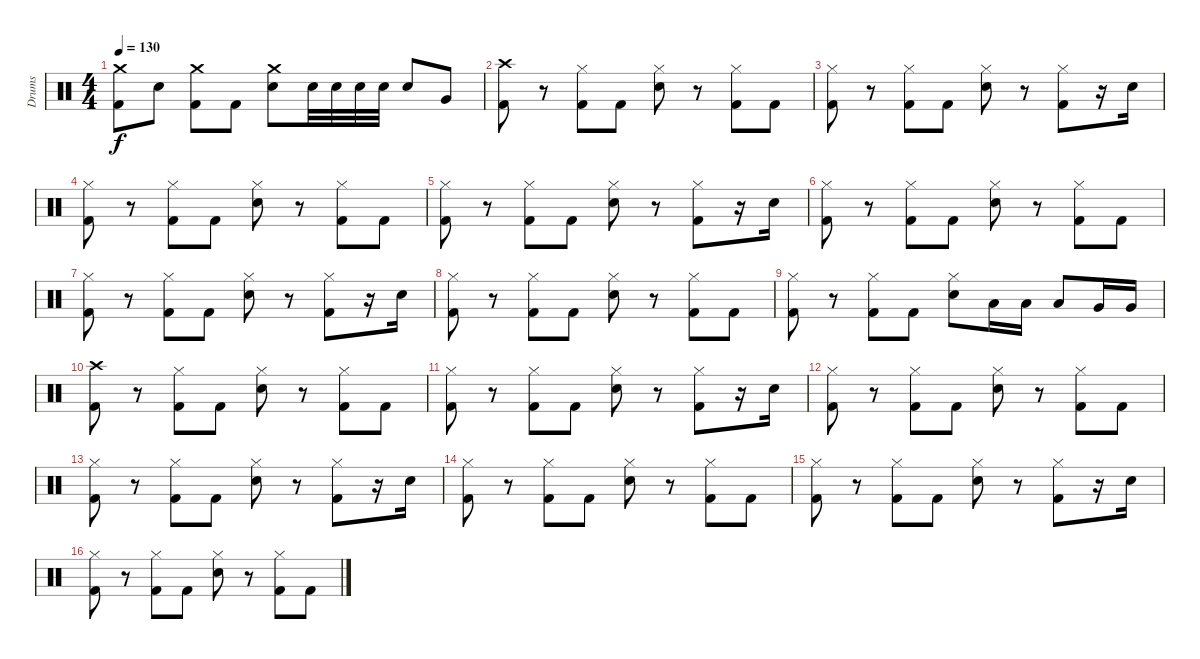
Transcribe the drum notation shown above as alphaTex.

\track ("Drums" "Drums") {instrument percussion}
\staff {score}
\articulation defaults
\ts (4 4)
\tempo 130
\clef neutral
\ks c
("Crash medium (hit)" "Kick (hit) 2").8{dy f} "Electric Snare (hit)".8 ("Crash medium (hit)" "Kick (hit) 2").8 "Kick (hit) 2".8 ("Crash medium (hit)" "Electric Snare (hit)").8 "Electric Snare (hit)".32 "Electric Snare (hit)".32 "Electric Snare (hit)".32 "Electric Snare (hit)".32 "Electric Snare (hit)".8 "Very Low Tom (hit)".8 |
("Crash high (hit)" "Kick (hit) 2").8 r.8 ("Hi-Hat (closed)" "Kick (hit) 2").8 "Kick (hit) 2".8 ("Hi-Hat (closed)" "Electric Snare (hit)").8 r.8 ("Hi-Hat (closed)" "Kick (hit) 2").8 "Kick (hit) 2".8 |
("Hi-Hat (closed)" "Kick (hit) 2").8 r.8 ("Hi-Hat (closed)" "Kick (hit) 2").8 "Kick (hit) 2".8 ("Hi-Hat (closed)" "Electric Snare (hit)").8 r.8 ("Hi-Hat (closed)" "Kick (hit) 2").8 r.16 "Electric Snare (hit)".16 |
("Hi-Hat (closed)" "Kick (hit) 2").8 r.8 ("Hi-Hat (closed)" "Kick (hit) 2").8 "Kick (hit) 2".8 ("Hi-Hat (closed)" "Electric Snare (hit)").8 r.8 ("Hi-Hat (closed)" "Kick (hit) 2").8 "Kick (hit) 2".8 |
("Hi-Hat (closed)" "Kick (hit) 2").8 r.8 ("Hi-Hat (closed)" "Kick (hit) 2").8 "Kick (hit) 2".8 ("Hi-Hat (closed)" "Electric Snare (hit)").8 r.8 ("Hi-Hat (closed)" "Kick (hit) 2").8 r.16 "Electric Snare (hit)".16 |
("Hi-Hat (closed)" "Kick (hit) 2").8 r.8 ("Hi-Hat (closed)" "Kick (hit) 2").8 "Kick (hit) 2".8 ("Hi-Hat (closed)" "Electric Snare (hit)").8 r.8 ("Hi-Hat (closed)" "Kick (hit) 2").8 "Kick (hit) 2".8 |
("Hi-Hat (closed)" "Kick (hit) 2").8 r.8 ("Hi-Hat (closed)" "Kick (hit) 2").8 "Kick (hit) 2".8 ("Hi-Hat (closed)" "Electric Snare (hit)").8 r.8 ("Hi-Hat (closed)" "Kick (hit) 2").8 r.16 "Electric Snare (hit)".16 |
("Hi-Hat (closed)" "Kick (hit) 2").8 r.8 ("Hi-Hat (closed)" "Kick (hit) 2").8 "Kick (hit) 2".8 ("Hi-Hat (closed)" "Electric Snare (hit)").8 r.8 ("Hi-Hat (closed)" "Kick (hit) 2").8 "Kick (hit) 2".8 |
("Hi-Hat (closed)" "Kick (hit) 2").8 r.8 ("Hi-Hat (closed)" "Kick (hit) 2").8 "Kick (hit) 2".8 ("Hi-Hat (closed)" "Electric Snare (hit)").8 "Low Tom (hit)".16 "Low Tom (hit)".16 "Low Tom (hit)".8 "Very Low Tom (hit)".16 "Very Low Tom (hit)".16 |
("Crash high (hit)" "Kick (hit) 2").8 r.8 ("Hi-Hat (closed)" "Kick (hit) 2").8 "Kick (hit) 2".8 ("Hi-Hat (closed)" "Electric Snare (hit)").8 r.8 ("Hi-Hat (closed)" "Kick (hit) 2").8 "Kick (hit) 2".8 |
("Hi-Hat (closed)" "Kick (hit) 2").8 r.8 ("Hi-Hat (closed)" "Kick (hit) 2").8 "Kick (hit) 2".8 ("Hi-Hat (closed)" "Electric Snare (hit)").8 r.8 ("Hi-Hat (closed)" "Kick (hit) 2").8 r.16 "Electric Snare (hit)".16 |
("Hi-Hat (closed)" "Kick (hit) 2").8 r.8 ("Hi-Hat (closed)" "Kick (hit) 2").8 "Kick (hit) 2".8 ("Hi-Hat (closed)" "Electric Snare (hit)").8 r.8 ("Hi-Hat (closed)" "Kick (hit) 2").8 "Kick (hit) 2".8 |
("Hi-Hat (closed)" "Kick (hit) 2").8 r.8 ("Hi-Hat (closed)" "Kick (hit) 2").8 "Kick (hit) 2".8 ("Hi-Hat (closed)" "Electric Snare (hit)").8 r.8 ("Hi-Hat (closed)" "Kick (hit) 2").8 r.16 "Electric Snare (hit)".16 |
("Hi-Hat (closed)" "Kick (hit) 2").8 r.8 ("Hi-Hat (closed)" "Kick (hit) 2").8 "Kick (hit) 2".8 ("Hi-Hat (closed)" "Electric Snare (hit)").8 r.8 ("Hi-Hat (closed)" "Kick (hit) 2").8 "Kick (hit) 2".8 |
("Hi-Hat (closed)" "Kick (hit) 2").8 r.8 ("Hi-Hat (closed)" "Kick (hit) 2").8 "Kick (hit) 2".8 ("Hi-Hat (closed)" "Electric Snare (hit)").8 r.8 ("Hi-Hat (closed)" "Kick (hit) 2").8 r.16 "Electric Snare (hit)".16 |
("Hi-Hat (closed)" "Kick (hit) 2").8 r.8 ("Hi-Hat (closed)" "Kick (hit) 2").8 "Kick (hit) 2".8 ("Hi-Hat (closed)" "Electric Snare (hit)").8 r.8 ("Hi-Hat (closed)" "Kick (hit) 2").8 "Kick (hit) 2".8
